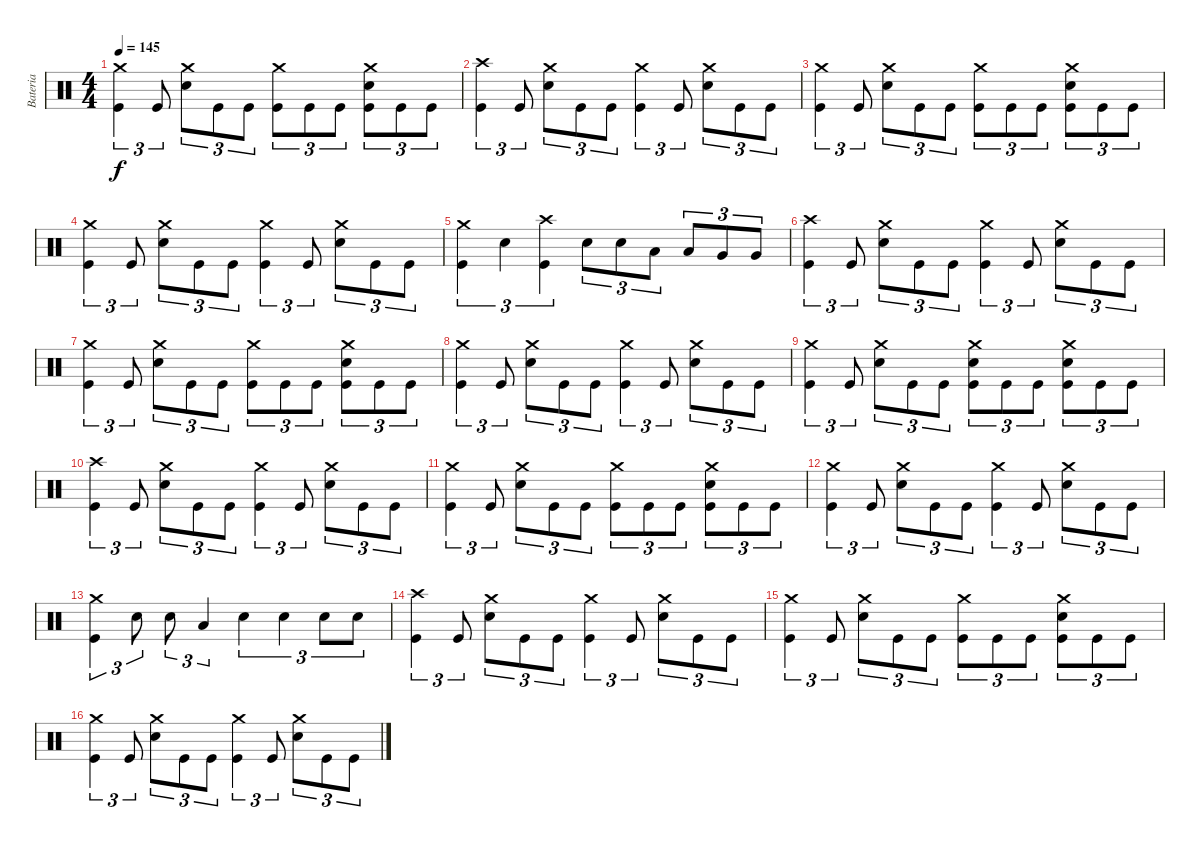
\track ("Bateria" "Bateria") {instrument percussion}
\staff {score}
\articulation defaults
\ts (4 4)
\tempo 145
\clef neutral
\ks c
("Crash medium (hit)" "Kick (hit)").4{tu (3 2) dy f} "Kick (hit)".8{tu (3 2)} ("Crash medium (hit)" "Snare (hit) 2").8{tu (3 2)} "Kick (hit)".8{tu (3 2)} "Kick (hit)".8{tu (3 2)} ("Crash medium (hit)" "Kick (hit)").8{tu (3 2)} "Kick (hit)".8{tu (3 2)} "Kick (hit)".8{tu (3 2)} ("Crash medium (hit)" "Snare (hit) 2" "Kick (hit)").8{tu (3 2)} "Kick (hit)".8{tu (3 2)} "Kick (hit)".8{tu (3 2)} |
("Crash high (hit)" "Kick (hit)").4{tu (3 2)} "Kick (hit)".8{tu (3 2)} ("Crash medium (hit)" "Snare (hit) 2").8{tu (3 2)} "Kick (hit)".8{tu (3 2)} "Kick (hit)".8{tu (3 2)} ("Crash medium (hit)" "Kick (hit)").4{tu (3 2)} "Kick (hit)".8{tu (3 2)} ("Crash medium (hit)" "Snare (hit) 2").8{tu (3 2)} "Kick (hit)".8{tu (3 2)} "Kick (hit)".8{tu (3 2)} |
("Crash medium (hit)" "Kick (hit)").4{tu (3 2)} "Kick (hit)".8{tu (3 2)} ("Crash medium (hit)" "Snare (hit) 2").8{tu (3 2)} "Kick (hit)".8{tu (3 2)} "Kick (hit)".8{tu (3 2)} ("Crash medium (hit)" "Kick (hit)").8{tu (3 2)} "Kick (hit)".8{tu (3 2)} "Kick (hit)".8{tu (3 2)} ("Crash medium (hit)" "Snare (hit) 2" "Kick (hit)").8{tu (3 2)} "Kick (hit)".8{tu (3 2)} "Kick (hit)".8{tu (3 2)} |
("Crash medium (hit)" "Kick (hit)").4{tu (3 2)} "Kick (hit)".8{tu (3 2)} ("Crash medium (hit)" "Snare (hit) 2").8{tu (3 2)} "Kick (hit)".8{tu (3 2)} "Kick (hit)".8{tu (3 2)} ("Crash medium (hit)" "Kick (hit)").4{tu (3 2)} "Kick (hit)".8{tu (3 2)} ("Crash medium (hit)" "Snare (hit) 2").8{tu (3 2)} "Kick (hit)".8{tu (3 2)} "Kick (hit)".8{tu (3 2)} |
("Crash medium (hit)" "Kick (hit)").4{tu (3 2)} "Snare (hit) 2".4{tu (3 2)} ("Crash high (hit)" "Kick (hit)").4{tu (3 2)} "Snare (hit) 2".8{tu (3 2)} "Snare (hit) 2".8{tu (3 2)} "Low Tom (hit)".8{tu (3 2)} "Low Tom (hit)".8{tu (3 2)} "Very Low Tom (hit)".8{tu (3 2)} "Very Low Tom (hit)".8{tu (3 2)} |
("Crash high (hit)" "Kick (hit)").4{tu (3 2)} "Kick (hit)".8{tu (3 2)} ("Crash medium (hit)" "Snare (hit) 2").8{tu (3 2)} "Kick (hit)".8{tu (3 2)} "Kick (hit)".8{tu (3 2)} ("Crash medium (hit)" "Kick (hit)").4{tu (3 2)} "Kick (hit)".8{tu (3 2)} ("Crash medium (hit)" "Snare (hit) 2").8{tu (3 2)} "Kick (hit)".8{tu (3 2)} "Kick (hit)".8{tu (3 2)} |
("Crash medium (hit)" "Kick (hit)").4{tu (3 2)} "Kick (hit)".8{tu (3 2)} ("Crash medium (hit)" "Snare (hit) 2").8{tu (3 2)} "Kick (hit)".8{tu (3 2)} "Kick (hit)".8{tu (3 2)} ("Crash medium (hit)" "Kick (hit)").8{tu (3 2)} "Kick (hit)".8{tu (3 2)} "Kick (hit)".8{tu (3 2)} ("Crash medium (hit)" "Snare (hit) 2" "Kick (hit)").8{tu (3 2)} "Kick (hit)".8{tu (3 2)} "Kick (hit)".8{tu (3 2)} |
("Crash medium (hit)" "Kick (hit)").4{tu (3 2)} "Kick (hit)".8{tu (3 2)} ("Crash medium (hit)" "Snare (hit) 2").8{tu (3 2)} "Kick (hit)".8{tu (3 2)} "Kick (hit)".8{tu (3 2)} ("Crash medium (hit)" "Kick (hit)").4{tu (3 2)} "Kick (hit)".8{tu (3 2)} ("Crash medium (hit)" "Snare (hit) 2").8{tu (3 2)} "Kick (hit)".8{tu (3 2)} "Kick (hit)".8{tu (3 2)} |
("Crash medium (hit)" "Kick (hit)").4{tu (3 2)} "Kick (hit)".8{tu (3 2)} ("Crash medium (hit)" "Snare (hit) 2").8{tu (3 2)} "Kick (hit)".8{tu (3 2)} "Kick (hit)".8{tu (3 2)} ("Crash medium (hit)" "Snare (hit) 2" "Kick (hit)").8{tu (3 2)} "Kick (hit)".8{tu (3 2)} "Kick (hit)".8{tu (3 2)} ("Crash medium (hit)" "Snare (hit) 2" "Kick (hit)").8{tu (3 2)} "Kick (hit)".8{tu (3 2)} "Kick (hit)".8{tu (3 2)} |
("Crash high (hit)" "Kick (hit)").4{tu (3 2)} "Kick (hit)".8{tu (3 2)} ("Crash medium (hit)" "Snare (hit) 2").8{tu (3 2)} "Kick (hit)".8{tu (3 2)} "Kick (hit)".8{tu (3 2)} ("Crash medium (hit)" "Kick (hit)").4{tu (3 2)} "Kick (hit)".8{tu (3 2)} ("Crash medium (hit)" "Snare (hit) 2").8{tu (3 2)} "Kick (hit)".8{tu (3 2)} "Kick (hit)".8{tu (3 2)} |
("Crash medium (hit)" "Kick (hit)").4{tu (3 2)} "Kick (hit)".8{tu (3 2)} ("Crash medium (hit)" "Snare (hit) 2").8{tu (3 2)} "Kick (hit)".8{tu (3 2)} "Kick (hit)".8{tu (3 2)} ("Crash medium (hit)" "Kick (hit)").8{tu (3 2)} "Kick (hit)".8{tu (3 2)} "Kick (hit)".8{tu (3 2)} ("Crash medium (hit)" "Snare (hit) 2" "Kick (hit)").8{tu (3 2)} "Kick (hit)".8{tu (3 2)} "Kick (hit)".8{tu (3 2)} |
("Crash medium (hit)" "Kick (hit)").4{tu (3 2)} "Kick (hit)".8{tu (3 2)} ("Crash medium (hit)" "Snare (hit) 2").8{tu (3 2)} "Kick (hit)".8{tu (3 2)} "Kick (hit)".8{tu (3 2)} ("Crash medium (hit)" "Kick (hit)").4{tu (3 2)} "Kick (hit)".8{tu (3 2)} ("Crash medium (hit)" "Snare (hit) 2").8{tu (3 2)} "Kick (hit)".8{tu (3 2)} "Kick (hit)".8{tu (3 2)} |
("Crash medium (hit)" "Kick (hit)").4{tu (3 2)} "Snare (hit) 2".8{tu (3 2)} "Snare (hit) 2".8{tu (3 2)} "Low Tom (hit)".4{tu (3 2)} "Snare (hit) 2".4{tu (3 2)} "Snare (hit) 2".4{tu (3 2)} "Snare (hit) 2".8{tu (3 2)} "Snare (hit) 2".8{tu (3 2)} |
("Crash high (hit)" "Kick (hit)").4{tu (3 2)} "Kick (hit)".8{tu (3 2)} ("Crash medium (hit)" "Snare (hit) 2").8{tu (3 2)} "Kick (hit)".8{tu (3 2)} "Kick (hit)".8{tu (3 2)} ("Crash medium (hit)" "Kick (hit)").4{tu (3 2)} "Kick (hit)".8{tu (3 2)} ("Crash medium (hit)" "Snare (hit) 2").8{tu (3 2)} "Kick (hit)".8{tu (3 2)} "Kick (hit)".8{tu (3 2)} |
("Crash medium (hit)" "Kick (hit)").4{tu (3 2)} "Kick (hit)".8{tu (3 2)} ("Crash medium (hit)" "Snare (hit) 2").8{tu (3 2)} "Kick (hit)".8{tu (3 2)} "Kick (hit)".8{tu (3 2)} ("Crash medium (hit)" "Kick (hit)").8{tu (3 2)} "Kick (hit)".8{tu (3 2)} "Kick (hit)".8{tu (3 2)} ("Crash medium (hit)" "Snare (hit) 2" "Kick (hit)").8{tu (3 2)} "Kick (hit)".8{tu (3 2)} "Kick (hit)".8{tu (3 2)} |
("Crash medium (hit)" "Kick (hit)").4{tu (3 2)} "Kick (hit)".8{tu (3 2)} ("Crash medium (hit)" "Snare (hit) 2").8{tu (3 2)} "Kick (hit)".8{tu (3 2)} "Kick (hit)".8{tu (3 2)} ("Crash medium (hit)" "Kick (hit)").4{tu (3 2)} "Kick (hit)".8{tu (3 2)} ("Crash medium (hit)" "Snare (hit) 2").8{tu (3 2)} "Kick (hit)".8{tu (3 2)} "Kick (hit)".8{tu (3 2)}
